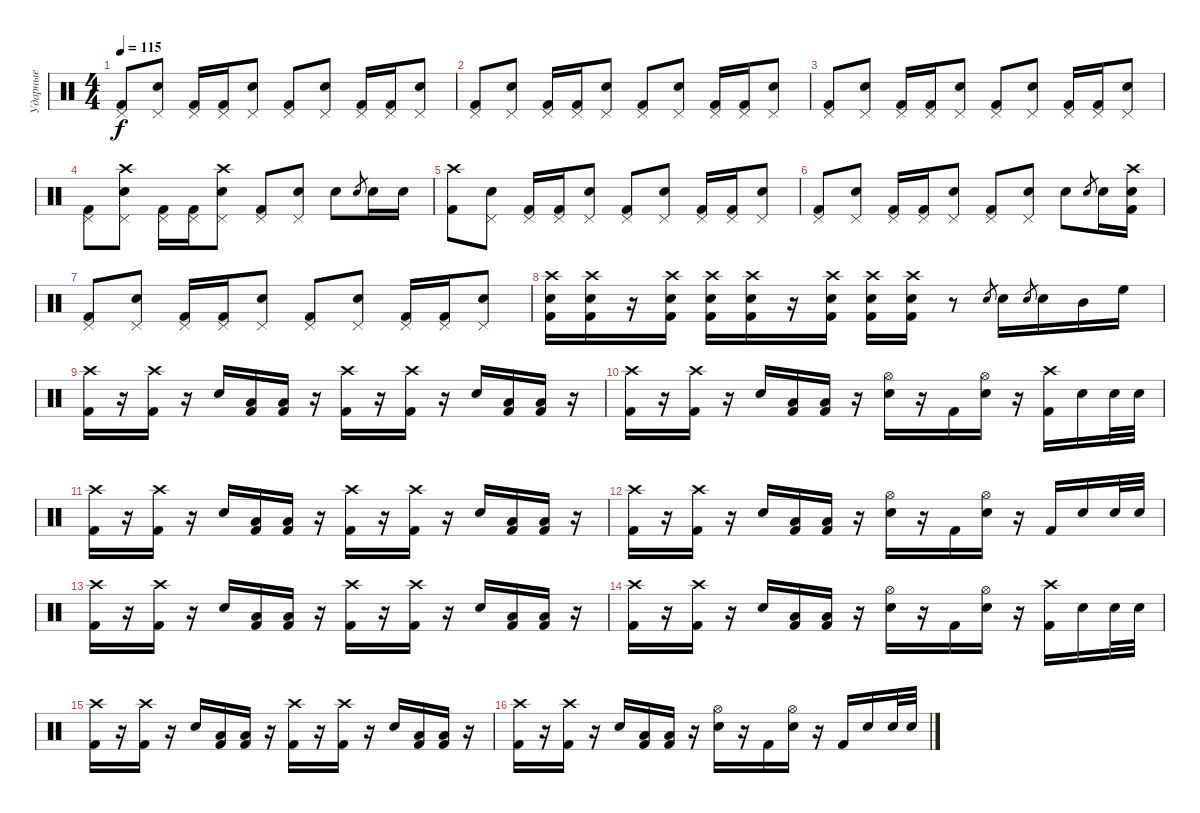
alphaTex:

\track ("Ударные" "Ударные") {instrument percussion}
\staff
\articulation defaults
\ts (4 4)
\tempo 115
\clef neutral
\ks c
("Pedal Hi-Hat (hit)" "Kick (hit) 2").8{dy f} ("Pedal Hi-Hat (hit)" "Electric Snare (hit)").8 ("Pedal Hi-Hat (hit)" "Kick (hit) 2").16 ("Pedal Hi-Hat (hit)" "Kick (hit) 2").16 ("Pedal Hi-Hat (hit)" "Electric Snare (hit)").8 ("Pedal Hi-Hat (hit)" "Kick (hit) 2").8 ("Pedal Hi-Hat (hit)" "Electric Snare (hit)").8 ("Pedal Hi-Hat (hit)" "Kick (hit) 2").16 ("Pedal Hi-Hat (hit)" "Kick (hit) 2").16 ("Pedal Hi-Hat (hit)" "Electric Snare (hit)").8 |
("Pedal Hi-Hat (hit)" "Kick (hit) 2").8 ("Pedal Hi-Hat (hit)" "Electric Snare (hit)").8 ("Pedal Hi-Hat (hit)" "Kick (hit) 2").16 ("Pedal Hi-Hat (hit)" "Kick (hit) 2").16 ("Pedal Hi-Hat (hit)" "Electric Snare (hit)").8 ("Pedal Hi-Hat (hit)" "Kick (hit) 2").8 ("Pedal Hi-Hat (hit)" "Electric Snare (hit)").8 ("Pedal Hi-Hat (hit)" "Kick (hit) 2").16 ("Pedal Hi-Hat (hit)" "Kick (hit) 2").16 ("Pedal Hi-Hat (hit)" "Electric Snare (hit)").8 |
("Pedal Hi-Hat (hit)" "Kick (hit) 2").8 ("Pedal Hi-Hat (hit)" "Electric Snare (hit)").8 ("Pedal Hi-Hat (hit)" "Kick (hit) 2").16 ("Pedal Hi-Hat (hit)" "Kick (hit) 2").16 ("Pedal Hi-Hat (hit)" "Electric Snare (hit)").8 ("Pedal Hi-Hat (hit)" "Kick (hit) 2").8 ("Pedal Hi-Hat (hit)" "Electric Snare (hit)").8 ("Pedal Hi-Hat (hit)" "Kick (hit) 2").16 ("Pedal Hi-Hat (hit)" "Kick (hit) 2").16 ("Pedal Hi-Hat (hit)" "Electric Snare (hit)").8 |
("Pedal Hi-Hat (hit)" "Kick (hit) 2").8 ("Pedal Hi-Hat (hit)" "Electric Snare (hit)" "Crash high (hit)").8 ("Pedal Hi-Hat (hit)" "Kick (hit) 2").16 ("Pedal Hi-Hat (hit)" "Kick (hit) 2").16 ("Pedal Hi-Hat (hit)" "Electric Snare (hit)" "Crash high (hit)").8 ("Pedal Hi-Hat (hit)" "Kick (hit) 2").8 ("Pedal Hi-Hat (hit)" "Electric Snare (hit)").8 "Electric Snare (hit)".8 "Electric Snare (hit)".8{gr} "Electric Snare (hit)".16 "Electric Snare (hit)".16 |
("Crash high (hit)" "Kick (hit) 2").8 ("Pedal Hi-Hat (hit)" "Electric Snare (hit)").8 ("Pedal Hi-Hat (hit)" "Kick (hit) 2").16 ("Pedal Hi-Hat (hit)" "Kick (hit) 2").16 ("Pedal Hi-Hat (hit)" "Electric Snare (hit)").8 ("Pedal Hi-Hat (hit)" "Kick (hit) 2").8 ("Pedal Hi-Hat (hit)" "Electric Snare (hit)").8 ("Pedal Hi-Hat (hit)" "Kick (hit) 2").16 ("Pedal Hi-Hat (hit)" "Kick (hit) 2").16 ("Pedal Hi-Hat (hit)" "Electric Snare (hit)").8 |
("Pedal Hi-Hat (hit)" "Kick (hit) 2").8 ("Pedal Hi-Hat (hit)" "Electric Snare (hit)").8 ("Pedal Hi-Hat (hit)" "Kick (hit) 2").16 ("Pedal Hi-Hat (hit)" "Kick (hit) 2").16 ("Pedal Hi-Hat (hit)" "Electric Snare (hit)").8 ("Pedal Hi-Hat (hit)" "Kick (hit) 2").8 ("Pedal Hi-Hat (hit)" "Electric Snare (hit)").8 "Electric Snare (hit)".8 "Electric Snare (hit)".8{gr} "Electric Snare (hit)".16 ("Crash high (hit)" "Electric Snare (hit)" "Kick (hit) 2").16 |
("Pedal Hi-Hat (hit)" "Kick (hit) 2").8 ("Pedal Hi-Hat (hit)" "Electric Snare (hit)").8 ("Pedal Hi-Hat (hit)" "Kick (hit) 2").16 ("Pedal Hi-Hat (hit)" "Kick (hit) 2").16 ("Pedal Hi-Hat (hit)" "Electric Snare (hit)").8 ("Pedal Hi-Hat (hit)" "Kick (hit) 2").8 ("Pedal Hi-Hat (hit)" "Electric Snare (hit)").8 ("Pedal Hi-Hat (hit)" "Kick (hit) 2").16 ("Pedal Hi-Hat (hit)" "Kick (hit) 2").16 ("Pedal Hi-Hat (hit)" "Electric Snare (hit)").8 |
("Crash high (hit)" "Electric Snare (hit)" "Kick (hit) 2").16 ("Crash high (hit)" "Electric Snare (hit)" "Kick (hit) 2").16 r.16 ("Crash high (hit)" "Electric Snare (hit)" "Kick (hit) 2").16 ("Crash high (hit)" "Electric Snare (hit)" "Kick (hit) 2").16 ("Crash high (hit)" "Electric Snare (hit)" "Kick (hit) 2").16 r.16 ("Crash high (hit)" "Kick (hit) 2" "Electric Snare (hit)").16 ("Crash high (hit)" "Kick (hit) 2" "Electric Snare (hit)").16 ("Crash high (hit)" "Kick (hit) 2" "Electric Snare (hit)").16 r.8 "Electric Snare (hit)".8{gr} "Electric Snare (hit)".16 "Electric Snare (hit)".8{gr} "Electric Snare (hit)".16 "Mid Tom (hit)".16 "High Floor Tom (hit)".16 |
("Crash high (hit)" "Kick (hit) 2").16 r.16 ("Crash high (hit)" "Kick (hit) 2").16 r.16 "Electric Snare (hit)".16 ("Low Tom (hit)" "Kick (hit) 2").16 ("Low Tom (hit)" "Kick (hit) 2").16 r.16 ("Crash high (hit)" "Kick (hit) 2").16 r.16 ("Crash high (hit)" "Kick (hit) 2").16 r.16 "Electric Snare (hit)".16 ("Low Tom (hit)" "Kick (hit) 2").16 ("Low Tom (hit)" "Kick (hit) 2").16 r.16 |
("Crash high (hit)" "Kick (hit) 2").16 r.16 ("Crash high (hit)" "Kick (hit) 2").16 r.16 "Electric Snare (hit)".16 ("Low Tom (hit)" "Kick (hit) 2").16 ("Low Tom (hit)" "Kick (hit) 2").16 r.16 ("Hi-Hat (open)" "Electric Snare (hit)").16 r.16 "Kick (hit) 2".16 ("Hi-Hat (open)" "Electric Snare (hit)").16 r.16 ("Crash high (hit)" "Kick (hit) 2").16 "Electric Snare (hit)".16 "Electric Snare (hit)".32 "Electric Snare (hit)".32 |
("Crash high (hit)" "Kick (hit) 2").16 r.16 ("Crash high (hit)" "Kick (hit) 2").16 r.16 "Electric Snare (hit)".16 ("Low Tom (hit)" "Kick (hit) 2").16 ("Low Tom (hit)" "Kick (hit) 2").16 r.16 ("Crash high (hit)" "Kick (hit) 2").16 r.16 ("Crash high (hit)" "Kick (hit) 2").16 r.16 "Electric Snare (hit)".16 ("Low Tom (hit)" "Kick (hit) 2").16 ("Low Tom (hit)" "Kick (hit) 2").16 r.16 |
("Crash high (hit)" "Kick (hit) 2").16 r.16 ("Crash high (hit)" "Kick (hit) 2").16 r.16 "Electric Snare (hit)".16 ("Low Tom (hit)" "Kick (hit) 2").16 ("Low Tom (hit)" "Kick (hit) 2").16 r.16 ("Hi-Hat (open)" "Electric Snare (hit)").16 r.16 "Kick (hit) 2".16 ("Hi-Hat (open)" "Electric Snare (hit)").16 r.16 "Kick (hit) 2".16 "Electric Snare (hit)".16 "Electric Snare (hit)".32 "Electric Snare (hit)".32 |
("Crash high (hit)" "Kick (hit) 2").16 r.16 ("Crash high (hit)" "Kick (hit) 2").16 r.16 "Electric Snare (hit)".16 ("Low Tom (hit)" "Kick (hit) 2").16 ("Low Tom (hit)" "Kick (hit) 2").16 r.16 ("Crash high (hit)" "Kick (hit) 2").16 r.16 ("Crash high (hit)" "Kick (hit) 2").16 r.16 "Electric Snare (hit)".16 ("Low Tom (hit)" "Kick (hit) 2").16 ("Low Tom (hit)" "Kick (hit) 2").16 r.16 |
("Crash high (hit)" "Kick (hit) 2").16 r.16 ("Crash high (hit)" "Kick (hit) 2").16 r.16 "Electric Snare (hit)".16 ("Low Tom (hit)" "Kick (hit) 2").16 ("Low Tom (hit)" "Kick (hit) 2").16 r.16 ("Hi-Hat (open)" "Electric Snare (hit)").16 r.16 "Kick (hit) 2".16 ("Hi-Hat (open)" "Electric Snare (hit)").16 r.16 ("Crash high (hit)" "Kick (hit) 2").16 "Electric Snare (hit)".16 "Electric Snare (hit)".32 "Electric Snare (hit)".32 |
("Crash high (hit)" "Kick (hit) 2").16 r.16 ("Crash high (hit)" "Kick (hit) 2").16 r.16 "Electric Snare (hit)".16 ("Low Tom (hit)" "Kick (hit) 2").16 ("Low Tom (hit)" "Kick (hit) 2").16 r.16 ("Crash high (hit)" "Kick (hit) 2").16 r.16 ("Crash high (hit)" "Kick (hit) 2").16 r.16 "Electric Snare (hit)".16 ("Low Tom (hit)" "Kick (hit) 2").16 ("Low Tom (hit)" "Kick (hit) 2").16 r.16 |
("Crash high (hit)" "Kick (hit) 2").16 r.16 ("Crash high (hit)" "Kick (hit) 2").16 r.16 "Electric Snare (hit)".16 ("Low Tom (hit)" "Kick (hit) 2").16 ("Low Tom (hit)" "Kick (hit) 2").16 r.16 ("Hi-Hat (open)" "Electric Snare (hit)").16 r.16 "Kick (hit) 2".16 ("Hi-Hat (open)" "Electric Snare (hit)").16 r.16 "Kick (hit) 2".16 "Electric Snare (hit)".16 "Electric Snare (hit)".32 "Electric Snare (hit)".32
